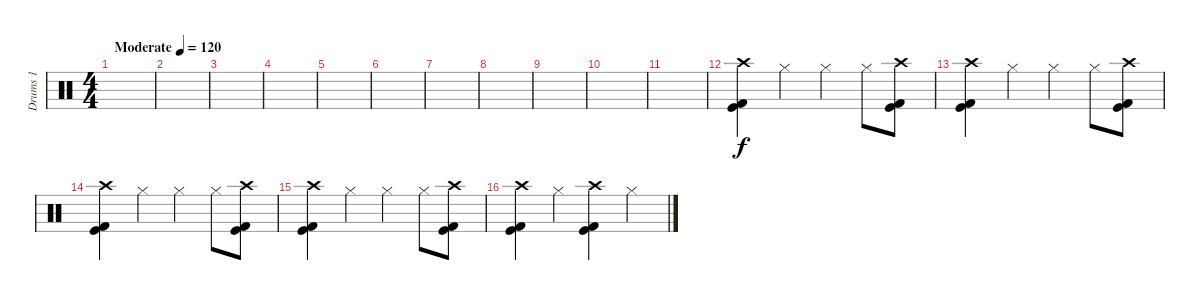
\track ("Drums 1" "Drums 1") {instrument percussion}
\staff {score}
\articulation defaults
\ts (4 4)
\tempo (120 "Moderate")
\clef neutral
\ks c
|
|
|
|
|
|
|
|
|
|
|
("Kick (hit) 2" "Kick (hit)" "Crash high (hit)").4 "Hi-Hat (closed)".4 "Hi-Hat (closed)".4 "Hi-Hat (closed)".8 ("Kick (hit) 2" "Kick (hit)" "Crash high (hit)").8 |
("Kick (hit) 2" "Kick (hit)" "Crash high (hit)").4 "Hi-Hat (closed)".4 "Hi-Hat (closed)".4 "Hi-Hat (closed)".8 ("Kick (hit) 2" "Kick (hit)" "Crash high (hit)").8 |
("Kick (hit) 2" "Kick (hit)" "Crash high (hit)").4 "Hi-Hat (closed)".4 "Hi-Hat (closed)".4 "Hi-Hat (closed)".8 ("Kick (hit) 2" "Kick (hit)" "Crash high (hit)").8 |
("Kick (hit) 2" "Kick (hit)" "Crash high (hit)").4 "Hi-Hat (closed)".4 "Hi-Hat (closed)".4 "Hi-Hat (closed)".8 ("Kick (hit) 2" "Kick (hit)" "Crash high (hit)").8 |
("Kick (hit) 2" "Kick (hit)" "Crash high (hit)").4 "Hi-Hat (closed)".4 ("Kick (hit) 2" "Kick (hit)" "Crash high (hit)").4 "Hi-Hat (closed)".4
